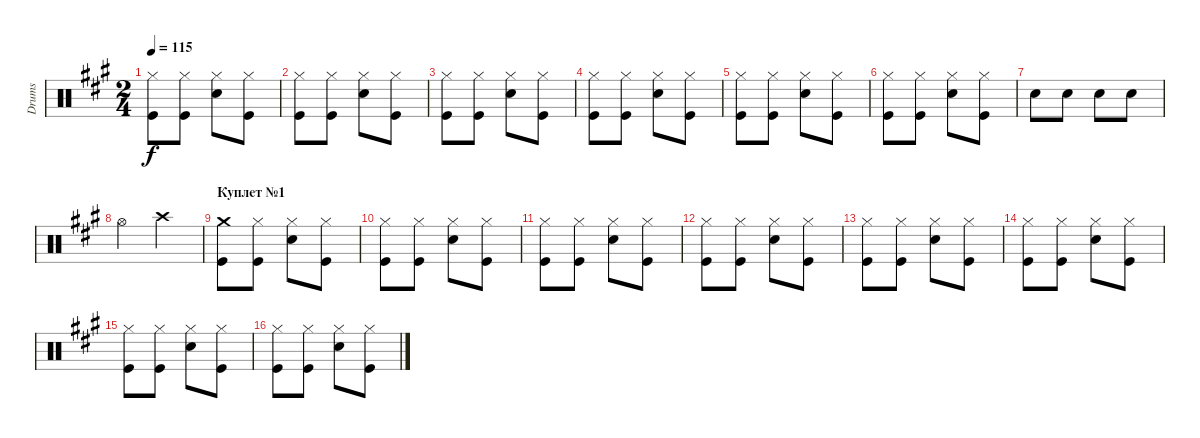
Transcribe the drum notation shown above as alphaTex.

\track ("Drums" "Drums") {instrument percussion}
\staff {score}
\articulation defaults
\ts (2 4)
\tempo 115
\clef neutral
\ks f#minor
("Hi-Hat (closed)" "Kick (hit)").8{dy f} ("Hi-Hat (closed)" "Kick (hit)").8 ("Hi-Hat (closed)" "Electric Snare (hit)").8 ("Hi-Hat (closed)" "Kick (hit)").8 |
("Hi-Hat (closed)" "Kick (hit)").8 ("Hi-Hat (closed)" "Kick (hit)").8 ("Hi-Hat (closed)" "Electric Snare (hit)").8 ("Hi-Hat (closed)" "Kick (hit)").8 |
("Hi-Hat (closed)" "Kick (hit)").8 ("Hi-Hat (closed)" "Kick (hit)").8 ("Hi-Hat (closed)" "Electric Snare (hit)").8 ("Hi-Hat (closed)" "Kick (hit)").8 |
("Hi-Hat (closed)" "Kick (hit)").8 ("Hi-Hat (closed)" "Kick (hit)").8 ("Hi-Hat (closed)" "Electric Snare (hit)").8 ("Hi-Hat (closed)" "Kick (hit)").8 |
("Hi-Hat (closed)" "Kick (hit)").8 ("Hi-Hat (closed)" "Kick (hit)").8 ("Hi-Hat (closed)" "Electric Snare (hit)").8 ("Hi-Hat (closed)" "Kick (hit)").8 |
("Hi-Hat (closed)" "Kick (hit)").8 ("Hi-Hat (closed)" "Kick (hit)").8 ("Hi-Hat (closed)" "Electric Snare (hit)").8 ("Hi-Hat (closed)" "Kick (hit)").8 |
"Electric Snare (hit)".8 "Electric Snare (hit)".8 "Electric Snare (hit)".8 "Electric Snare (hit)".8 |
"Hi-Hat (open)".4 "Crash high (hit)".4 |
\section ("" "Куплет №1")
("Crash medium (hit)" "Kick (hit)").8 ("Hi-Hat (closed)" "Kick (hit)").8 ("Hi-Hat (closed)" "Electric Snare (hit)").8 ("Hi-Hat (closed)" "Kick (hit)").8 |
("Hi-Hat (closed)" "Kick (hit)").8 ("Hi-Hat (closed)" "Kick (hit)").8 ("Hi-Hat (closed)" "Electric Snare (hit)").8 ("Hi-Hat (closed)" "Kick (hit)").8 |
("Hi-Hat (closed)" "Kick (hit)").8 ("Hi-Hat (closed)" "Kick (hit)").8 ("Hi-Hat (closed)" "Electric Snare (hit)").8 ("Hi-Hat (closed)" "Kick (hit)").8 |
("Hi-Hat (closed)" "Kick (hit)").8 ("Hi-Hat (closed)" "Kick (hit)").8 ("Hi-Hat (closed)" "Electric Snare (hit)").8 ("Hi-Hat (closed)" "Kick (hit)").8 |
("Hi-Hat (closed)" "Kick (hit)").8 ("Hi-Hat (closed)" "Kick (hit)").8 ("Hi-Hat (closed)" "Electric Snare (hit)").8 ("Hi-Hat (closed)" "Kick (hit)").8 |
("Hi-Hat (closed)" "Kick (hit)").8 ("Hi-Hat (closed)" "Kick (hit)").8 ("Hi-Hat (closed)" "Electric Snare (hit)").8 ("Hi-Hat (closed)" "Kick (hit)").8 |
("Hi-Hat (closed)" "Kick (hit)").8 ("Hi-Hat (closed)" "Kick (hit)").8 ("Hi-Hat (closed)" "Electric Snare (hit)").8 ("Hi-Hat (closed)" "Kick (hit)").8 |
("Hi-Hat (closed)" "Kick (hit)").8 ("Hi-Hat (closed)" "Kick (hit)").8 ("Hi-Hat (closed)" "Electric Snare (hit)").8 ("Hi-Hat (closed)" "Kick (hit)").8
